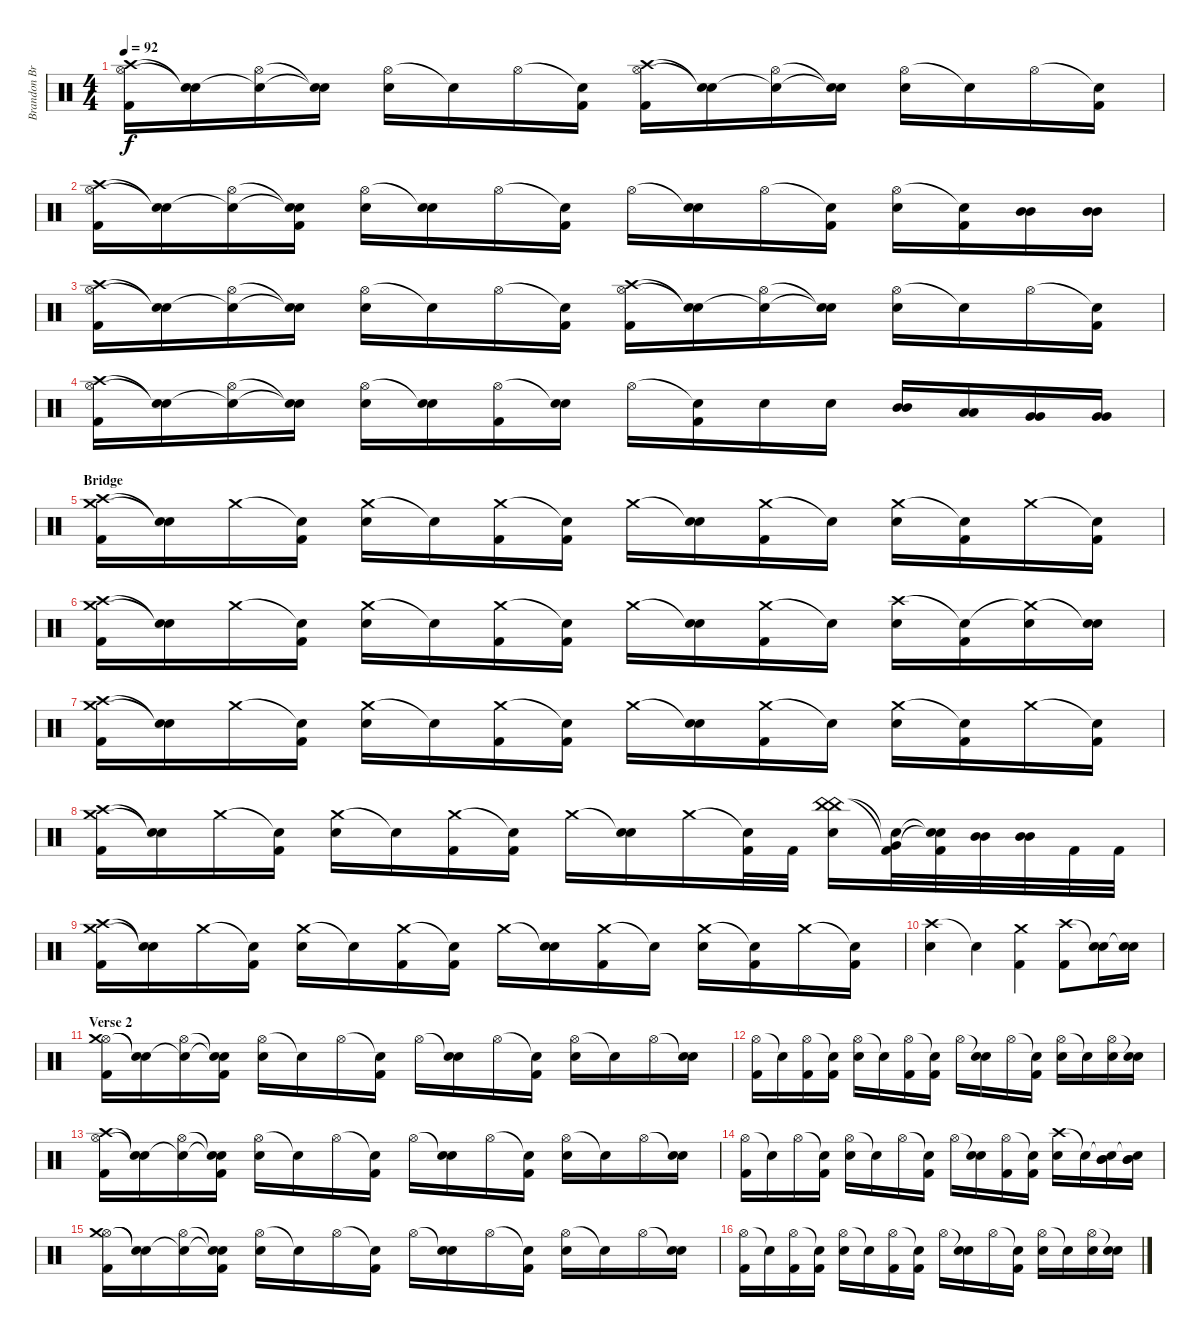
\track ("Brandon Brown (Drums)" "Brandon Br") {instrument percussion}
\staff {score}
\articulation defaults
\ts (4 4)
\tempo 92
\clef neutral
\ks c
("Hi-Hat (open)" "Crash high (hit)" "Kick (hit) 2").16{dy f} ("Snare (hit)"{t} "Snare (hit)"{t}).16 ("Hi-Hat (open)" "Snare (hit)"{t}).16 ("Snare (hit)"{t} "Snare (hit)"{t}).16 ("Hi-Hat (open)" "Electric Snare (hit)").16 "Snare (hit)"{t}.16 "Hi-Hat (open)".16 ("Snare (hit)"{t} "Kick (hit) 2").16 ("Hi-Hat (open)" "Crash high (hit)" "Kick (hit) 2").16 ("Snare (hit)"{t} "Snare (hit)"{t}).16 ("Hi-Hat (open)" "Snare (hit)"{t}).16 ("Snare (hit)"{t} "Snare (hit)"{t}).16 ("Hi-Hat (open)" "Electric Snare (hit)").16 "Snare (hit)"{t}.16 "Hi-Hat (open)".16 ("Snare (hit)"{t} "Kick (hit) 2").16 |
("Hi-Hat (open)" "Crash high (hit)" "Kick (hit) 2").16 ("Snare (hit)"{t} "Snare (hit)"{t}).16 ("Hi-Hat (open)" "Snare (hit)"{t}).16 ("Snare (hit)"{t} "Snare (hit)"{t} "Kick (hit) 2").16 ("Hi-Hat (open)" "Electric Snare (hit)").16 ("Snare (hit)"{t} "Electric Snare (hit)").16 "Hi-Hat (open)".16 ("Snare (hit)"{t} "Kick (hit) 2").16 "Hi-Hat (open)".16 ("Snare (hit)"{t} "Electric Snare (hit)").16 "Hi-Hat (open)".16 ("Snare (hit)"{t} "Kick (hit) 2").16 ("Hi-Hat (open)" "Electric Snare (hit)").16 ("Snare (hit)"{t} "Kick (hit) 2").16 ("Mid Tom (hit)" "Mid Tom (hit)").16 ("Mid Tom (hit)" "Mid Tom (hit)").16 |
("Hi-Hat (open)" "Crash high (hit)" "Kick (hit) 2").16 ("Snare (hit)"{t} "Snare (hit)"{t}).16 ("Hi-Hat (open)" "Snare (hit)"{t}).16 ("Snare (hit)"{t} "Snare (hit)"{t}).16 ("Hi-Hat (open)" "Electric Snare (hit)").16 "Snare (hit)"{t}.16 "Hi-Hat (open)".16 ("Snare (hit)"{t} "Kick (hit) 2").16 ("Hi-Hat (open)" "Crash high (hit)" "Kick (hit) 2").16 ("Snare (hit)"{t} "Snare (hit)"{t}).16 ("Hi-Hat (open)" "Snare (hit)"{t}).16 ("Snare (hit)"{t} "Snare (hit)"{t}).16 ("Hi-Hat (open)" "Electric Snare (hit)").16 "Snare (hit)"{t}.16 "Hi-Hat (open)".16 ("Snare (hit)"{t} "Kick (hit) 2").16 |
("Hi-Hat (open)" "Crash high (hit)" "Kick (hit) 2").16 ("Snare (hit)"{t} "Snare (hit)"{t}).16 ("Hi-Hat (open)" "Snare (hit)"{t}).16 ("Snare (hit)"{t} "Snare (hit)"{t}).16 ("Hi-Hat (open)" "Electric Snare (hit)").16 ("Snare (hit)"{t} "Electric Snare (hit)").16 ("Hi-Hat (open)" "Kick (hit) 2").16 ("Snare (hit)"{t} "Electric Snare (hit)").16 "Hi-Hat (open)".16 ("Snare (hit)"{t} "Kick (hit) 2").16 "Electric Snare (hit)".16 "Electric Snare (hit)".16 ("Mid Tom (hit)" "Mid Tom (hit)").16 ("Low Tom (hit)" "Low Tom (hit)").16 ("Very Low Tom (hit)" "Very Low Tom (hit)").16 ("Very Low Tom (hit)" "Very Low Tom (hit)").16 |
\section ("" "Bridge")
("Crash high (hit)" "Crash medium (hit)" "Kick (hit) 2").16 ("Snare (hit)"{t} "Snare (hit)"{t}).16 "Crash medium (hit)".16 ("Snare (hit)"{t} "Kick (hit) 2").16 ("Crash medium (hit)" "Electric Snare (hit)").16 "Snare (hit)"{t}.16 ("Crash medium (hit)" "Kick (hit) 2").16 ("Snare (hit)"{t} "Kick (hit) 2").16 "Crash medium (hit)".16 ("Snare (hit)"{t} "Electric Snare (hit)").16 ("Crash medium (hit)" "Kick (hit) 2").16 "Snare (hit)"{t}.16 ("Crash medium (hit)" "Electric Snare (hit)").16 ("Snare (hit)"{t} "Kick (hit) 2").16 "Crash medium (hit)".16 ("Snare (hit)"{t} "Kick (hit) 2").16 |
("Crash high (hit)" "Crash medium (hit)" "Kick (hit) 2").16 ("Snare (hit)"{t} "Snare (hit)"{t}).16 "Crash medium (hit)".16 ("Snare (hit)"{t} "Kick (hit) 2").16 ("Crash medium (hit)" "Electric Snare (hit)").16 "Snare (hit)"{t}.16 ("Crash medium (hit)" "Kick (hit) 2").16 ("Snare (hit)"{t} "Kick (hit) 2").16 "Crash medium (hit)".16 ("Snare (hit)"{t} "Electric Snare (hit)").16 ("Crash medium (hit)" "Kick (hit) 2").16 "Snare (hit)"{t}.16 ("Crash high (hit)" "Electric Snare (hit)").16 ("Snare (hit)"{t} "Kick (hit) 2").16 ("Crash medium (hit)"{t} "Electric Snare (hit)").16 ("Snare (hit)"{t} "Electric Snare (hit)").16 |
("Crash high (hit)" "Crash medium (hit)" "Kick (hit) 2").16 ("Snare (hit)"{t} "Snare (hit)"{t}).16 "Crash medium (hit)".16 ("Snare (hit)"{t} "Kick (hit) 2").16 ("Crash medium (hit)" "Electric Snare (hit)").16 "Snare (hit)"{t}.16 ("Crash medium (hit)" "Kick (hit) 2").16 ("Snare (hit)"{t} "Kick (hit) 2").16 "Crash medium (hit)".16 ("Snare (hit)"{t} "Electric Snare (hit)").16 ("Crash medium (hit)" "Kick (hit) 2").16 "Snare (hit)"{t}.16 ("Crash medium (hit)" "Electric Snare (hit)").16 ("Snare (hit)"{t} "Kick (hit) 2").16 "Crash medium (hit)".16 ("Snare (hit)"{t} "Kick (hit) 2").16 |
("Crash high (hit)" "Crash medium (hit)" "Kick (hit) 2").16 ("Snare (hit)"{t} "Snare (hit)"{t}).16 "Crash medium (hit)".16 ("Snare (hit)"{t} "Kick (hit) 2").16 ("Crash medium (hit)" "Electric Snare (hit)").16 "Snare (hit)"{t}.16 ("Crash medium (hit)" "Kick (hit) 2").16 ("Snare (hit)"{t} "Kick (hit) 2").16 "Crash medium (hit)".16 ("Snare (hit)"{t} "Electric Snare (hit)").16 "Crash medium (hit)".16 ("Snare (hit)"{t} "Kick (hit) 2").32 "Kick (hit) 2".32 ("China (hit)" "China (hit)" "Electric Snare (hit)").16 ("Snare (hit)"{t} "Very Low Tom (hit)"{t} "Kick (hit) 2").32 ("Snare (hit)"{t} "Snare (hit)"{t} "Kick (hit) 2").32 ("Mid Tom (hit)" "Mid Tom (hit)").32 ("Mid Tom (hit)" "Mid Tom (hit)").32 "Kick (hit) 2".32 "Kick (hit) 2".32 |
("Crash high (hit)" "Crash medium (hit)" "Kick (hit) 2").16 ("Snare (hit)"{t} "Snare (hit)"{t}).16 "Crash medium (hit)".16 ("Snare (hit)"{t} "Kick (hit) 2").16 ("Crash medium (hit)" "Electric Snare (hit)").16 "Snare (hit)"{t}.16 ("Crash medium (hit)" "Kick (hit) 2").16 ("Snare (hit)"{t} "Kick (hit) 2").16 "Crash medium (hit)".16 ("Snare (hit)"{t} "Electric Snare (hit)").16 ("Crash medium (hit)" "Kick (hit) 2").16 "Snare (hit)"{t}.16 ("Crash medium (hit)" "Electric Snare (hit)").16 ("Snare (hit)"{t} "Kick (hit) 2").16 "Crash medium (hit)".16 ("Snare (hit)"{t} "Kick (hit) 2").16 |
("Crash high (hit)" "Electric Snare (hit)").4 "Snare (hit)"{t}.4 ("Crash medium (hit)" "Kick (hit) 2").4 ("Crash high (hit)" "Kick (hit) 2").8 ("Snare (hit)"{t} "Electric Snare (hit)").16 ("Snare (hit)"{t} "Electric Snare (hit)").16 |
\section ("" "Verse 2")
("Hi-Hat (open)" "Crash medium (hit)" "Kick (hit) 2").16 ("Snare (hit)"{t} "Snare (hit)"{t}).16 ("Hi-Hat (open)" "Snare (hit)"{t}).16 ("Snare (hit)"{t} "Snare (hit)"{t} "Kick (hit) 2").16 ("Hi-Hat (open)" "Electric Snare (hit)").16 "Snare (hit)"{t}.16 "Hi-Hat (open)".16 ("Snare (hit)"{t} "Kick (hit) 2").16 "Hi-Hat (open)".16 ("Snare (hit)"{t} "Electric Snare (hit)").16 "Hi-Hat (open)".16 ("Snare (hit)"{t} "Kick (hit) 2").16 ("Hi-Hat (open)" "Electric Snare (hit)").16 "Snare (hit)"{t}.16 "Hi-Hat (open)".16 ("Snare (hit)"{t} "Electric Snare (hit)").16 |
("Hi-Hat (open)" "Kick (hit) 2").16 "Snare (hit)"{t}.16 ("Hi-Hat (open)" "Kick (hit) 2").16 ("Snare (hit)"{t} "Kick (hit) 2").16 ("Hi-Hat (open)" "Electric Snare (hit)").16 "Snare (hit)"{t}.16 ("Hi-Hat (open)" "Kick (hit) 2").16 ("Snare (hit)"{t} "Kick (hit) 2").16 "Hi-Hat (open)".16 ("Snare (hit)"{t} "Electric Snare (hit)").16 "Hi-Hat (open)".16 ("Snare (hit)"{t} "Kick (hit) 2").16 ("Hi-Hat (open)" "Electric Snare (hit)").16 "Snare (hit)"{t}.16 ("Hi-Hat (open)" "Electric Snare (hit)").16 ("Snare (hit)"{t} "Electric Snare (hit)").16 |
("Hi-Hat (open)" "Crash high (hit)" "Kick (hit) 2").16 ("Snare (hit)"{t} "Snare (hit)"{t}).16 ("Hi-Hat (open)" "Snare (hit)"{t}).16 ("Snare (hit)"{t} "Snare (hit)"{t} "Kick (hit) 2").16 ("Hi-Hat (open)" "Electric Snare (hit)").16 "Snare (hit)"{t}.16 "Hi-Hat (open)".16 ("Snare (hit)"{t} "Kick (hit) 2").16 "Hi-Hat (open)".16 ("Snare (hit)"{t} "Electric Snare (hit)").16 "Hi-Hat (open)".16 ("Snare (hit)"{t} "Kick (hit) 2").16 ("Hi-Hat (open)" "Electric Snare (hit)").16 "Snare (hit)"{t}.16 "Hi-Hat (open)".16 ("Snare (hit)"{t} "Electric Snare (hit)").16 |
("Hi-Hat (open)" "Kick (hit) 2").16 "Snare (hit)"{t}.16 "Hi-Hat (open)".16 ("Snare (hit)"{t} "Kick (hit) 2").16 ("Hi-Hat (open)" "Electric Snare (hit)").16 "Snare (hit)"{t}.16 "Hi-Hat (open)".16 ("Snare (hit)"{t} "Kick (hit) 2").16 "Hi-Hat (open)".16 ("Snare (hit)"{t} "Electric Snare (hit)").16 ("Hi-Hat (open)" "Kick (hit) 2").16 ("Snare (hit)"{t} "Kick (hit) 2").16 ("Crash high (hit)" "Electric Snare (hit)").16 "Snare (hit)"{t}.16 ("Snare (hit)"{t} "Mid Tom (hit)" "Mid Tom (hit)").16 ("Snare (hit)"{t} "Mid Tom (hit)" "Mid Tom (hit)").16 |
("Hi-Hat (open)" "Crash medium (hit)" "Kick (hit) 2").16 ("Snare (hit)"{t} "Snare (hit)"{t}).16 ("Hi-Hat (open)" "Snare (hit)"{t}).16 ("Snare (hit)"{t} "Snare (hit)"{t} "Kick (hit) 2").16 ("Hi-Hat (open)" "Electric Snare (hit)").16 "Snare (hit)"{t}.16 "Hi-Hat (open)".16 ("Snare (hit)"{t} "Kick (hit) 2").16 "Hi-Hat (open)".16 ("Snare (hit)"{t} "Electric Snare (hit)").16 "Hi-Hat (open)".16 ("Snare (hit)"{t} "Kick (hit) 2").16 ("Hi-Hat (open)" "Electric Snare (hit)").16 "Snare (hit)"{t}.16 "Hi-Hat (open)".16 ("Snare (hit)"{t} "Electric Snare (hit)").16 |
("Hi-Hat (open)" "Kick (hit) 2").16 "Snare (hit)"{t}.16 ("Hi-Hat (open)" "Kick (hit) 2").16 ("Snare (hit)"{t} "Kick (hit) 2").16 ("Hi-Hat (open)" "Electric Snare (hit)").16 "Snare (hit)"{t}.16 ("Hi-Hat (open)" "Kick (hit) 2").16 ("Snare (hit)"{t} "Kick (hit) 2").16 "Hi-Hat (open)".16 ("Snare (hit)"{t} "Electric Snare (hit)").16 "Hi-Hat (open)".16 ("Snare (hit)"{t} "Kick (hit) 2").16 ("Hi-Hat (open)" "Electric Snare (hit)").16 "Snare (hit)"{t}.16 ("Hi-Hat (open)" "Electric Snare (hit)").16 ("Snare (hit)"{t} "Electric Snare (hit)").16
